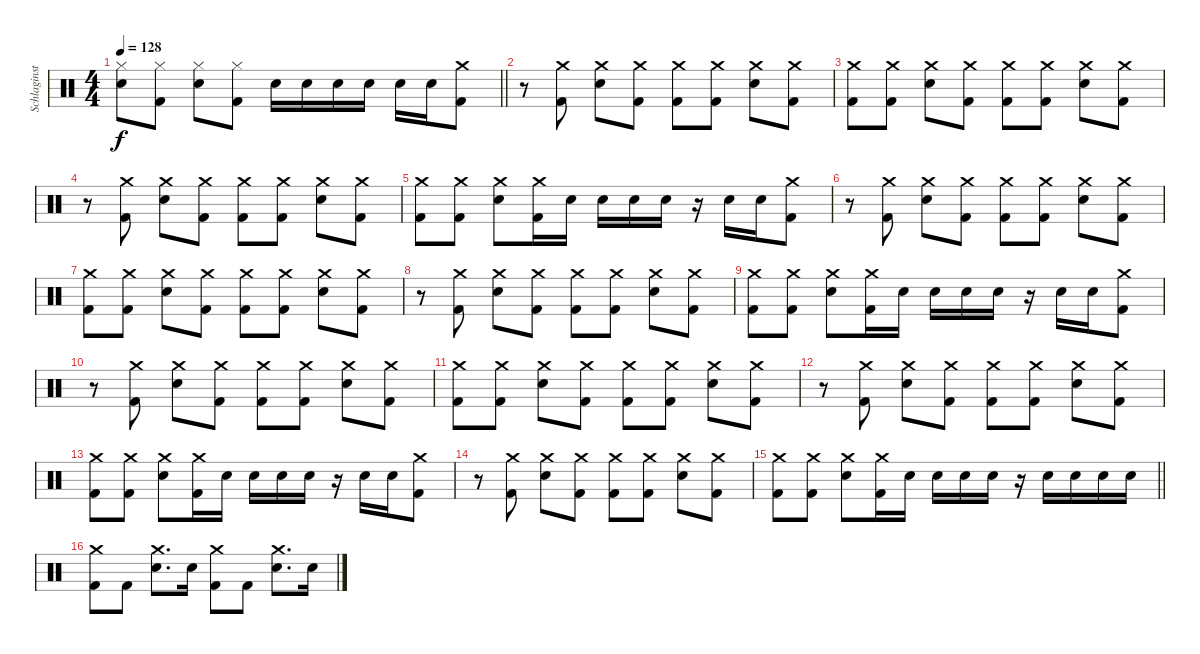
\track ("Schlaginstrumente - Auswahl" "Schlaginst") {instrument percussion}
\staff {score}
\articulation defaults
\ts (4 4)
\tempo 128
\clef neutral
\barLineRight lightlight
\ks c
("Hi-Hat (closed)" "Snare (hit) 2").8{dy f} ("Hi-Hat (closed)" "Kick (hit) 2").8 ("Hi-Hat (closed)" "Snare (hit) 2").8 ("Hi-Hat (closed)" "Kick (hit) 2").8 "Snare (hit) 2".16 "Snare (hit) 2".16 "Snare (hit) 2".16 "Snare (hit) 2".16 "Snare (hit) 2".16 "Snare (hit) 2".16 ("Crash medium (hit)" "Kick (hit) 2").8 |
r.8 ("Crash medium (hit)" "Kick (hit) 2").8 ("Crash medium (hit)" "Snare (hit) 2").8 ("Crash medium (hit)" "Kick (hit) 2").8 ("Crash medium (hit)" "Kick (hit) 2").8 ("Crash medium (hit)" "Kick (hit) 2").8 ("Crash medium (hit)" "Snare (hit) 2").8 ("Crash medium (hit)" "Kick (hit) 2").8 |
("Crash medium (hit)" "Kick (hit) 2").8 ("Crash medium (hit)" "Kick (hit) 2").8 ("Crash medium (hit)" "Snare (hit) 2").8 ("Crash medium (hit)" "Kick (hit) 2").8 ("Crash medium (hit)" "Kick (hit) 2").8 ("Crash medium (hit)" "Kick (hit) 2").8 ("Crash medium (hit)" "Snare (hit) 2").8 ("Crash medium (hit)" "Kick (hit) 2").8 |
r.8 ("Crash medium (hit)" "Kick (hit) 2").8 ("Crash medium (hit)" "Snare (hit) 2").8 ("Crash medium (hit)" "Kick (hit) 2").8 ("Crash medium (hit)" "Kick (hit) 2").8 ("Crash medium (hit)" "Kick (hit) 2").8 ("Crash medium (hit)" "Snare (hit) 2").8 ("Crash medium (hit)" "Kick (hit) 2").8 |
("Crash medium (hit)" "Kick (hit) 2").8 ("Crash medium (hit)" "Kick (hit) 2").8 ("Crash medium (hit)" "Snare (hit) 2").8 ("Crash medium (hit)" "Kick (hit) 2").16 "Snare (hit) 2".16 "Snare (hit) 2".16 "Snare (hit) 2".16 "Snare (hit) 2".16 r.16 "Snare (hit) 2".16 "Snare (hit) 2".16 ("Crash medium (hit)" "Kick (hit) 2").8 |
r.8 ("Crash medium (hit)" "Kick (hit) 2").8 ("Crash medium (hit)" "Snare (hit) 2").8 ("Crash medium (hit)" "Kick (hit) 2").8 ("Crash medium (hit)" "Kick (hit) 2").8 ("Crash medium (hit)" "Kick (hit) 2").8 ("Crash medium (hit)" "Snare (hit) 2").8 ("Crash medium (hit)" "Kick (hit) 2").8 |
("Crash medium (hit)" "Kick (hit) 2").8 ("Crash medium (hit)" "Kick (hit) 2").8 ("Crash medium (hit)" "Snare (hit) 2").8 ("Crash medium (hit)" "Kick (hit) 2").8 ("Crash medium (hit)" "Kick (hit) 2").8 ("Crash medium (hit)" "Kick (hit) 2").8 ("Crash medium (hit)" "Snare (hit) 2").8 ("Crash medium (hit)" "Kick (hit) 2").8 |
r.8 ("Crash medium (hit)" "Kick (hit) 2").8 ("Crash medium (hit)" "Snare (hit) 2").8 ("Crash medium (hit)" "Kick (hit) 2").8 ("Crash medium (hit)" "Kick (hit) 2").8 ("Crash medium (hit)" "Kick (hit) 2").8 ("Crash medium (hit)" "Snare (hit) 2").8 ("Crash medium (hit)" "Kick (hit) 2").8 |
("Crash medium (hit)" "Kick (hit) 2").8 ("Crash medium (hit)" "Kick (hit) 2").8 ("Crash medium (hit)" "Snare (hit) 2").8 ("Crash medium (hit)" "Kick (hit) 2").16 "Snare (hit) 2".16 "Snare (hit) 2".16 "Snare (hit) 2".16 "Snare (hit) 2".16 r.16 "Snare (hit) 2".16 "Snare (hit) 2".16 ("Crash medium (hit)" "Kick (hit) 2").8 |
r.8 ("Crash medium (hit)" "Kick (hit) 2").8 ("Crash medium (hit)" "Snare (hit) 2").8 ("Crash medium (hit)" "Kick (hit) 2").8 ("Crash medium (hit)" "Kick (hit) 2").8 ("Crash medium (hit)" "Kick (hit) 2").8 ("Crash medium (hit)" "Snare (hit) 2").8 ("Crash medium (hit)" "Kick (hit) 2").8 |
("Crash medium (hit)" "Kick (hit) 2").8 ("Crash medium (hit)" "Kick (hit) 2").8 ("Crash medium (hit)" "Snare (hit) 2").8 ("Crash medium (hit)" "Kick (hit) 2").8 ("Crash medium (hit)" "Kick (hit) 2").8 ("Crash medium (hit)" "Kick (hit) 2").8 ("Crash medium (hit)" "Snare (hit) 2").8 ("Crash medium (hit)" "Kick (hit) 2").8 |
r.8 ("Crash medium (hit)" "Kick (hit) 2").8 ("Crash medium (hit)" "Snare (hit) 2").8 ("Crash medium (hit)" "Kick (hit) 2").8 ("Crash medium (hit)" "Kick (hit) 2").8 ("Crash medium (hit)" "Kick (hit) 2").8 ("Crash medium (hit)" "Snare (hit) 2").8 ("Crash medium (hit)" "Kick (hit) 2").8 |
("Crash medium (hit)" "Kick (hit) 2").8 ("Crash medium (hit)" "Kick (hit) 2").8 ("Crash medium (hit)" "Snare (hit) 2").8 ("Crash medium (hit)" "Kick (hit) 2").16 "Snare (hit) 2".16 "Snare (hit) 2".16 "Snare (hit) 2".16 "Snare (hit) 2".16 r.16 "Snare (hit) 2".16 "Snare (hit) 2".16 ("Crash medium (hit)" "Kick (hit) 2").8 |
r.8 ("Crash medium (hit)" "Kick (hit) 2").8 ("Crash medium (hit)" "Snare (hit) 2").8 ("Crash medium (hit)" "Kick (hit) 2").8 ("Crash medium (hit)" "Kick (hit) 2").8 ("Crash medium (hit)" "Kick (hit) 2").8 ("Crash medium (hit)" "Snare (hit) 2").8 ("Crash medium (hit)" "Kick (hit) 2").8 |
\barLineRight lightlight
("Crash medium (hit)" "Kick (hit) 2").8 ("Crash medium (hit)" "Kick (hit) 2").8 ("Crash medium (hit)" "Snare (hit) 2").8 ("Crash medium (hit)" "Kick (hit) 2").16 "Snare (hit) 2".16 "Snare (hit) 2".16 "Snare (hit) 2".16 "Snare (hit) 2".16 r.16 "Snare (hit) 2".16 "Snare (hit) 2".16 "Snare (hit) 2".16 "Snare (hit) 2".16 |
("Crash medium (hit)" "Kick (hit) 2").8 "Kick (hit) 2".8 ("Crash medium (hit)" "Snare (hit) 2").8{d} "Snare (hit) 2".16 ("Crash medium (hit)" "Kick (hit) 2").8 "Kick (hit) 2".8 ("Crash medium (hit)" "Snare (hit) 2").8{d} "Snare (hit) 2".16
